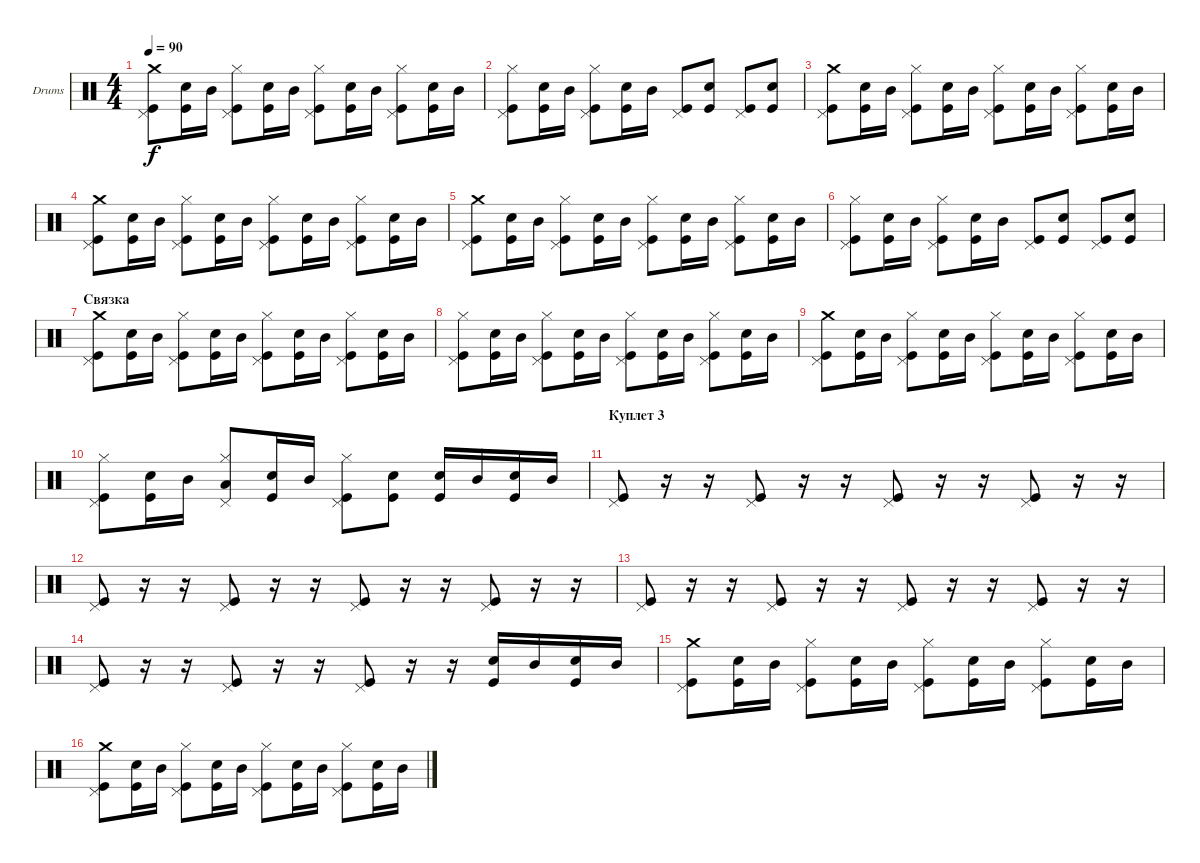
\defaultSystemsLayout 4
\bracketExtendMode groupsimilarinstruments
\firstSystemTrackNameOrientation horizontal
\otherSystemsTrackNameOrientation horizontal
\track ("Drums" "Drums") {instrument percussion}
\staff {score}
\articulation defaults
\ts (4 4)
\tempo 90
\clef neutral
\ks c
("Kick (hit)" "Pedal Hi-Hat (hit)" "Crash medium (hit)").8{dy f} ("Snare (hit) 2" "Kick (hit)").16 "Mid Tom (hit)".16 ("Pedal Hi-Hat (hit)" "Hi-Hat (closed)" "Kick (hit)").8 ("Snare (hit) 2" "Kick (hit)").16 "Mid Tom (hit)".16 ("Kick (hit)" "Pedal Hi-Hat (hit)" "Hi-Hat (closed)").8 ("Snare (hit) 2" "Kick (hit)").16 "Mid Tom (hit)".16 ("Kick (hit)" "Pedal Hi-Hat (hit)" "Hi-Hat (closed)").8 ("Snare (hit) 2" "Kick (hit)").16 "Mid Tom (hit)".16 |
("Kick (hit)" "Pedal Hi-Hat (hit)" "Hi-Hat (closed)").8 ("Snare (hit) 2" "Kick (hit)").16 "Mid Tom (hit)".16 ("Pedal Hi-Hat (hit)" "Hi-Hat (closed)" "Kick (hit)").8 ("Snare (hit) 2" "Kick (hit)").16 "Mid Tom (hit)".16 ("Kick (hit)" "Pedal Hi-Hat (hit)").8 ("Snare (hit) 2" "Kick (hit)").8 ("Kick (hit)" "Pedal Hi-Hat (hit)").8 ("Snare (hit) 2" "Kick (hit)").8 |
\scale
0.333333 ("Kick (hit)" "Pedal Hi-Hat (hit)" "Crash medium (hit)").8 ("Snare (hit) 2" "Kick (hit)").16 "Mid Tom (hit)".16 ("Pedal Hi-Hat (hit)" "Hi-Hat (closed)" "Kick (hit)").8 ("Snare (hit) 2" "Kick (hit)").16 "Mid Tom (hit)".16 ("Kick (hit)" "Pedal Hi-Hat (hit)" "Hi-Hat (closed)").8 ("Snare (hit) 2" "Kick (hit)").16 "Mid Tom (hit)".16 ("Kick (hit)" "Pedal Hi-Hat (hit)" "Hi-Hat (closed)").8 ("Snare (hit) 2" "Kick (hit)").16 "Mid Tom (hit)".16 |
\scale
0.333333 ("Kick (hit)" "Pedal Hi-Hat (hit)" "Crash medium (hit)").8 ("Snare (hit) 2" "Kick (hit)").16 "Mid Tom (hit)".16 ("Pedal Hi-Hat (hit)" "Hi-Hat (closed)" "Kick (hit)").8 ("Snare (hit) 2" "Kick (hit)").16 "Mid Tom (hit)".16 ("Kick (hit)" "Pedal Hi-Hat (hit)" "Hi-Hat (closed)").8 ("Snare (hit) 2" "Kick (hit)").16 "Mid Tom (hit)".16 ("Kick (hit)" "Pedal Hi-Hat (hit)" "Hi-Hat (closed)").8 ("Snare (hit) 2" "Kick (hit)").16 "Mid Tom (hit)".16 |
\scale
0.333333 ("Kick (hit)" "Pedal Hi-Hat (hit)" "Crash medium (hit)").8 ("Snare (hit) 2" "Kick (hit)").16 "Mid Tom (hit)".16 ("Pedal Hi-Hat (hit)" "Hi-Hat (closed)" "Kick (hit)").8 ("Snare (hit) 2" "Kick (hit)").16 "Mid Tom (hit)".16 ("Kick (hit)" "Pedal Hi-Hat (hit)" "Hi-Hat (closed)").8 ("Snare (hit) 2" "Kick (hit)").16 "Mid Tom (hit)".16 ("Kick (hit)" "Pedal Hi-Hat (hit)" "Hi-Hat (closed)").8 ("Snare (hit) 2" "Kick (hit)").16 "Mid Tom (hit)".16 |
("Kick (hit)" "Pedal Hi-Hat (hit)" "Hi-Hat (closed)").8 ("Snare (hit) 2" "Kick (hit)").16 "Mid Tom (hit)".16 ("Pedal Hi-Hat (hit)" "Hi-Hat (closed)" "Kick (hit)").8 ("Snare (hit) 2" "Kick (hit)").16 "Mid Tom (hit)".16 ("Kick (hit)" "Pedal Hi-Hat (hit)").8 ("Snare (hit) 2" "Kick (hit)").8 ("Kick (hit)" "Pedal Hi-Hat (hit)").8 ("Snare (hit) 2" "Kick (hit)").8 |
\section ("" "Связка")
("Kick (hit)" "Pedal Hi-Hat (hit)" "Crash medium (hit)").8 ("Snare (hit) 2" "Kick (hit)").16 "Mid Tom (hit)".16 ("Pedal Hi-Hat (hit)" "Hi-Hat (closed)" "Kick (hit)").8 ("Snare (hit) 2" "Kick (hit)").16 "Mid Tom (hit)".16 ("Kick (hit)" "Pedal Hi-Hat (hit)" "Hi-Hat (closed)").8 ("Snare (hit) 2" "Kick (hit)").16 "Mid Tom (hit)".16 ("Kick (hit)" "Pedal Hi-Hat (hit)" "Hi-Hat (closed)").8 ("Snare (hit) 2" "Kick (hit)").16 "Mid Tom (hit)".16 |
("Kick (hit)" "Pedal Hi-Hat (hit)" "Hi-Hat (closed)").8 ("Snare (hit) 2" "Kick (hit)").16 "Mid Tom (hit)".16 ("Pedal Hi-Hat (hit)" "Hi-Hat (closed)" "Kick (hit)").8 ("Snare (hit) 2" "Kick (hit)").16 "Mid Tom (hit)".16 ("Kick (hit)" "Pedal Hi-Hat (hit)" "Hi-Hat (closed)").8 ("Snare (hit) 2" "Kick (hit)").16 "Mid Tom (hit)".16 ("Kick (hit)" "Pedal Hi-Hat (hit)" "Hi-Hat (closed)").8 ("Snare (hit) 2" "Kick (hit)").16 "Mid Tom (hit)".16 |
("Kick (hit)" "Pedal Hi-Hat (hit)" "Crash medium (hit)").8 ("Snare (hit) 2" "Kick (hit)").16 "Mid Tom (hit)".16 ("Pedal Hi-Hat (hit)" "Hi-Hat (closed)" "Kick (hit)").8 ("Snare (hit) 2" "Kick (hit)").16 "Mid Tom (hit)".16 ("Kick (hit)" "Pedal Hi-Hat (hit)" "Hi-Hat (closed)").8 ("Snare (hit) 2" "Kick (hit)").16 "Mid Tom (hit)".16 ("Kick (hit)" "Pedal Hi-Hat (hit)" "Hi-Hat (closed)").8 ("Snare (hit) 2" "Kick (hit)").16 "Mid Tom (hit)".16 |
("Kick (hit)" "Pedal Hi-Hat (hit)" "Hi-Hat (closed)").8 ("Snare (hit) 2" "Kick (hit)").16 "Mid Tom (hit)".16 ("Pedal Hi-Hat (hit)" "Hi-Hat (closed)" "Low Tom (hit)").8 ("Snare (hit) 2" "Kick (hit)").16 "Mid Tom (hit)".16 ("Kick (hit)" "Pedal Hi-Hat (hit)" "Hi-Hat (closed)").8 ("Snare (hit) 2" "Kick (hit)").8 ("Snare (hit) 2" "Kick (hit)").16 "Mid Tom (hit)".16 ("Snare (hit) 2" "Kick (hit)").16 "Mid Tom (hit)".16 |
\section ("" "Куплет 3")
("Kick (hit)" "Pedal Hi-Hat (hit)").8 r.16 r.16 ("Pedal Hi-Hat (hit)" "Kick (hit)").8 r.16 r.16 ("Kick (hit)" "Pedal Hi-Hat (hit)").8 r.16 r.16 ("Kick (hit)" "Pedal Hi-Hat (hit)").8 r.16 r.16 |
("Kick (hit)" "Pedal Hi-Hat (hit)").8 r.16 r.16 ("Pedal Hi-Hat (hit)" "Kick (hit)").8 r.16 r.16 ("Kick (hit)" "Pedal Hi-Hat (hit)").8 r.16 r.16 ("Kick (hit)" "Pedal Hi-Hat (hit)").8 r.16 r.16 |
("Kick (hit)" "Pedal Hi-Hat (hit)").8 r.16 r.16 ("Pedal Hi-Hat (hit)" "Kick (hit)").8 r.16 r.16 ("Kick (hit)" "Pedal Hi-Hat (hit)").8 r.16 r.16 ("Kick (hit)" "Pedal Hi-Hat (hit)").8 r.16 r.16 |
("Kick (hit)" "Pedal Hi-Hat (hit)").8 r.16 r.16 ("Pedal Hi-Hat (hit)" "Kick (hit)").8 r.16 r.16 ("Kick (hit)" "Pedal Hi-Hat (hit)").8 r.16 r.16 ("Snare (hit) 2" "Kick (hit)").16 "Mid Tom (hit)".16 ("Snare (hit) 2" "Kick (hit)").16 "Mid Tom (hit)".16 |
("Kick (hit)" "Pedal Hi-Hat (hit)" "Crash medium (hit)").8 ("Snare (hit) 2" "Kick (hit)").16 "Mid Tom (hit)".16 ("Pedal Hi-Hat (hit)" "Hi-Hat (closed)" "Kick (hit)").8 ("Snare (hit) 2" "Kick (hit)").16 "Mid Tom (hit)".16 ("Kick (hit)" "Pedal Hi-Hat (hit)" "Hi-Hat (closed)").8 ("Snare (hit) 2" "Kick (hit)").16 "Mid Tom (hit)".16 ("Kick (hit)" "Pedal Hi-Hat (hit)" "Hi-Hat (closed)").8 ("Snare (hit) 2" "Kick (hit)").16 "Mid Tom (hit)".16 |
("Kick (hit)" "Pedal Hi-Hat (hit)" "Crash medium (hit)").8 ("Snare (hit) 2" "Kick (hit)").16 "Mid Tom (hit)".16 ("Pedal Hi-Hat (hit)" "Hi-Hat (closed)" "Kick (hit)").8 ("Snare (hit) 2" "Kick (hit)").16 "Mid Tom (hit)".16 ("Kick (hit)" "Pedal Hi-Hat (hit)" "Hi-Hat (closed)").8 ("Snare (hit) 2" "Kick (hit)").16 "Mid Tom (hit)".16 ("Kick (hit)" "Pedal Hi-Hat (hit)" "Hi-Hat (closed)").8 ("Snare (hit) 2" "Kick (hit)").16 "Mid Tom (hit)".16
